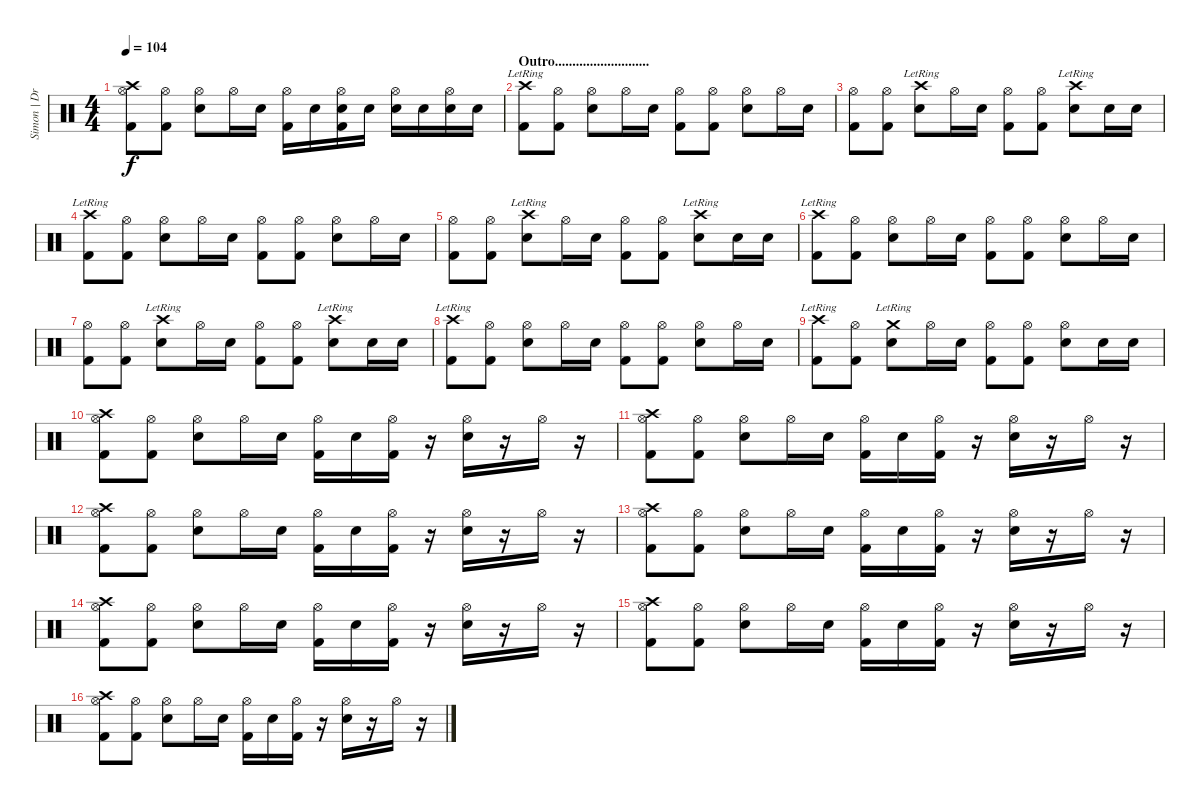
\track ("Simon | Drums" "Simon | Dr") {instrument percussion}
\staff {score}
\articulation defaults
\ts (4 4)
\tempo 104
\clef neutral
\ks c
("Crash high (hit)" "Hi-Hat (open)" "Kick (hit) 2").8{dy f} ("Hi-Hat (open)" "Kick (hit) 2").8 ("Hi-Hat (open)" "Electric Snare (hit)").8 "Hi-Hat (open)".16 "Electric Snare (hit)".16 ("Hi-Hat (open)" "Kick (hit) 2").16 "Electric Snare (hit)".16 ("Hi-Hat (open)" "Electric Snare (hit)" "Kick (hit) 2").16 "Electric Snare (hit)".16 ("Hi-Hat (open)" "Electric Snare (hit)").16 "Electric Snare (hit)".16 ("Hi-Hat (open)" "Electric Snare (hit)").16 "Electric Snare (hit)".16 |
\section ("" "Outro...........................")
("Crash high (hit)"{lr} "Kick (hit) 2").8 ("Hi-Hat (open)" "Kick (hit) 2").8 ("Hi-Hat (open)" "Electric Snare (hit)").8 "Hi-Hat (open)".16 "Electric Snare (hit)".16 ("Hi-Hat (open)" "Kick (hit) 2").8 ("Hi-Hat (open)" "Kick (hit) 2").8 ("Hi-Hat (open)" "Electric Snare (hit)").8 "Hi-Hat (open)".16 "Electric Snare (hit)".16 |
("Hi-Hat (open)" "Kick (hit) 2").8 ("Hi-Hat (open)" "Kick (hit) 2").8 ("Crash high (hit)"{lr} "Electric Snare (hit)").8 "Hi-Hat (open)".16 "Electric Snare (hit)".16 ("Hi-Hat (open)" "Kick (hit) 2").8 ("Hi-Hat (open)" "Kick (hit) 2").8 ("Crash high (hit)"{lr} "Electric Snare (hit)").8 "Electric Snare (hit)".16 "Electric Snare (hit)".16 |
("Crash high (hit)"{lr} "Kick (hit) 2").8 ("Hi-Hat (open)" "Kick (hit) 2").8 ("Hi-Hat (open)" "Electric Snare (hit)").8 "Hi-Hat (open)".16 "Electric Snare (hit)".16 ("Hi-Hat (open)" "Kick (hit) 2").8 ("Hi-Hat (open)" "Kick (hit) 2").8 ("Hi-Hat (open)" "Electric Snare (hit)").8 "Hi-Hat (open)".16 "Electric Snare (hit)".16 |
("Hi-Hat (open)" "Kick (hit) 2").8 ("Hi-Hat (open)" "Kick (hit) 2").8 ("Crash high (hit)"{lr} "Electric Snare (hit)").8 "Hi-Hat (open)".16 "Electric Snare (hit)".16 ("Hi-Hat (open)" "Kick (hit) 2").8 ("Hi-Hat (open)" "Kick (hit) 2").8 ("Crash high (hit)"{lr} "Electric Snare (hit)").8 "Electric Snare (hit)".16 "Electric Snare (hit)".16 |
("Crash high (hit)"{lr} "Kick (hit) 2").8 ("Hi-Hat (open)" "Kick (hit) 2").8 ("Hi-Hat (open)" "Electric Snare (hit)").8 "Hi-Hat (open)".16 "Electric Snare (hit)".16 ("Hi-Hat (open)" "Kick (hit) 2").8 ("Hi-Hat (open)" "Kick (hit) 2").8 ("Hi-Hat (open)" "Electric Snare (hit)").8 "Hi-Hat (open)".16 "Electric Snare (hit)".16 |
("Hi-Hat (open)" "Kick (hit) 2").8 ("Hi-Hat (open)" "Kick (hit) 2").8 ("Crash high (hit)"{lr} "Electric Snare (hit)").8 "Hi-Hat (open)".16 "Electric Snare (hit)".16 ("Hi-Hat (open)" "Kick (hit) 2").8 ("Hi-Hat (open)" "Kick (hit) 2").8 ("Crash high (hit)"{lr} "Electric Snare (hit)").8 "Electric Snare (hit)".16 "Electric Snare (hit)".16 |
("Crash high (hit)"{lr} "Kick (hit) 2").8 ("Hi-Hat (open)" "Kick (hit) 2").8 ("Hi-Hat (open)" "Electric Snare (hit)").8 "Hi-Hat (open)".16 "Electric Snare (hit)".16 ("Hi-Hat (open)" "Kick (hit) 2").8 ("Hi-Hat (open)" "Kick (hit) 2").8 ("Hi-Hat (open)" "Electric Snare (hit)").8 "Hi-Hat (open)".16 "Electric Snare (hit)".16 |
("Crash high (hit)"{lr} "Kick (hit) 2").8 ("Hi-Hat (open)" "Kick (hit) 2").8 ("Crash medium (hit)"{lr} "Electric Snare (hit)").8 "Hi-Hat (open)".16 "Electric Snare (hit)".16 ("Hi-Hat (open)" "Kick (hit) 2").8 ("Hi-Hat (open)" "Kick (hit) 2").8 ("Hi-Hat (open)" "Electric Snare (hit)").8 "Electric Snare (hit)".16 "Electric Snare (hit)".16 |
("Crash high (hit)" "Hi-Hat (open)" "Kick (hit) 2").8 ("Hi-Hat (open)" "Kick (hit) 2").8 ("Hi-Hat (open)" "Electric Snare (hit)").8 "Hi-Hat (open)".16 "Electric Snare (hit)".16 ("Hi-Hat (open)" "Kick (hit) 2").16 "Electric Snare (hit)".16 ("Hi-Hat (open)" "Kick (hit) 2").16 r.16 ("Hi-Hat (open)" "Electric Snare (hit)").16 r.16 "Hi-Hat (open)".16 r.16 |
("Crash high (hit)" "Hi-Hat (open)" "Kick (hit) 2").8 ("Hi-Hat (open)" "Kick (hit) 2").8 ("Hi-Hat (open)" "Electric Snare (hit)").8 "Hi-Hat (open)".16 "Electric Snare (hit)".16 ("Hi-Hat (open)" "Kick (hit) 2").16 "Electric Snare (hit)".16 ("Hi-Hat (open)" "Kick (hit) 2").16 r.16 ("Hi-Hat (open)" "Electric Snare (hit)").16 r.16 "Hi-Hat (open)".16 r.16 |
("Crash high (hit)" "Hi-Hat (open)" "Kick (hit) 2").8 ("Hi-Hat (open)" "Kick (hit) 2").8 ("Hi-Hat (open)" "Electric Snare (hit)").8 "Hi-Hat (open)".16 "Electric Snare (hit)".16 ("Hi-Hat (open)" "Kick (hit) 2").16 "Electric Snare (hit)".16 ("Hi-Hat (open)" "Kick (hit) 2").16 r.16 ("Hi-Hat (open)" "Electric Snare (hit)").16 r.16 "Hi-Hat (open)".16 r.16 |
("Crash high (hit)" "Hi-Hat (open)" "Kick (hit) 2").8 ("Hi-Hat (open)" "Kick (hit) 2").8 ("Hi-Hat (open)" "Electric Snare (hit)").8 "Hi-Hat (open)".16 "Electric Snare (hit)".16 ("Hi-Hat (open)" "Kick (hit) 2").16 "Electric Snare (hit)".16 ("Hi-Hat (open)" "Kick (hit) 2").16 r.16 ("Hi-Hat (open)" "Electric Snare (hit)").16 r.16 "Hi-Hat (open)".16 r.16 |
("Crash high (hit)" "Hi-Hat (open)" "Kick (hit) 2").8 ("Hi-Hat (open)" "Kick (hit) 2").8 ("Hi-Hat (open)" "Electric Snare (hit)").8 "Hi-Hat (open)".16 "Electric Snare (hit)".16 ("Hi-Hat (open)" "Kick (hit) 2").16 "Electric Snare (hit)".16 ("Hi-Hat (open)" "Kick (hit) 2").16 r.16 ("Hi-Hat (open)" "Electric Snare (hit)").16 r.16 "Hi-Hat (open)".16 r.16 |
("Crash high (hit)" "Hi-Hat (open)" "Kick (hit) 2").8 ("Hi-Hat (open)" "Kick (hit) 2").8 ("Hi-Hat (open)" "Electric Snare (hit)").8 "Hi-Hat (open)".16 "Electric Snare (hit)".16 ("Hi-Hat (open)" "Kick (hit) 2").16 "Electric Snare (hit)".16 ("Hi-Hat (open)" "Kick (hit) 2").16 r.16 ("Hi-Hat (open)" "Electric Snare (hit)").16 r.16 "Hi-Hat (open)".16 r.16 |
("Crash high (hit)" "Hi-Hat (open)" "Kick (hit) 2").8 ("Hi-Hat (open)" "Kick (hit) 2").8 ("Hi-Hat (open)" "Electric Snare (hit)").8 "Hi-Hat (open)".16 "Electric Snare (hit)".16 ("Hi-Hat (open)" "Kick (hit) 2").16 "Electric Snare (hit)".16 ("Hi-Hat (open)" "Kick (hit) 2").16 r.16 ("Hi-Hat (open)" "Electric Snare (hit)").16 r.16 "Hi-Hat (open)".16 r.16
